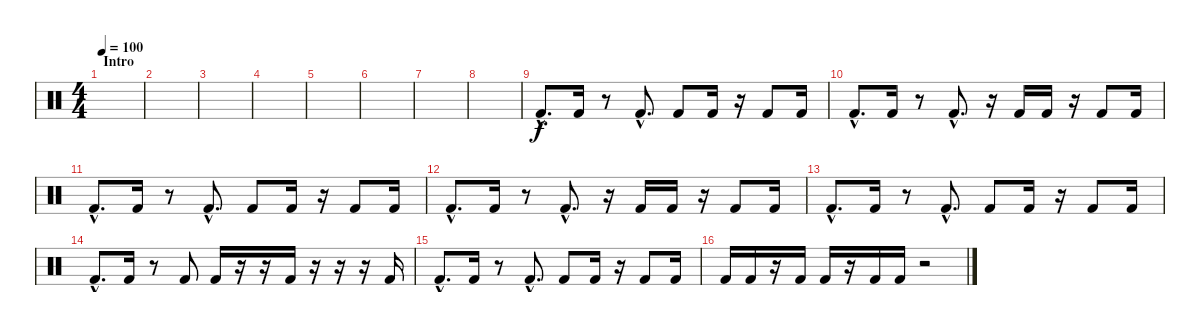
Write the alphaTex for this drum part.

\track "" {instrument percussion}
\staff {score}
\articulation defaults
\ts (4 4)
\section ("" "Intro")
\tempo 100
\clef neutral
\ks c
|
|
|
|
|
|
|
|
"Kick (hit) 2"{hac}.8{d} "Kick (hit) 2".16 r.8 "Kick (hit) 2"{hac}.8{d} "Kick (hit) 2".8 "Kick (hit) 2".16 r.16 "Kick (hit) 2".8 "Kick (hit) 2".16 |
"Kick (hit) 2"{hac}.8{d} "Kick (hit) 2".16 r.8 "Kick (hit) 2"{hac}.8{d} r.16 "Kick (hit) 2".16 "Kick (hit) 2".16 r.16 "Kick (hit) 2".8 "Kick (hit) 2".16 |
"Kick (hit) 2"{hac}.8{d} "Kick (hit) 2".16 r.8 "Kick (hit) 2"{hac}.8{d} "Kick (hit) 2".8 "Kick (hit) 2".16 r.16 "Kick (hit) 2".8 "Kick (hit) 2".16 |
"Kick (hit) 2"{hac}.8{d} "Kick (hit) 2".16 r.8 "Kick (hit) 2"{hac}.8{d} r.16 "Kick (hit) 2".16 "Kick (hit) 2".16 r.16 "Kick (hit) 2".8 "Kick (hit) 2".16 |
"Kick (hit) 2"{hac}.8{d} "Kick (hit) 2".16 r.8 "Kick (hit) 2"{hac}.8{d} "Kick (hit) 2".8 "Kick (hit) 2".16 r.16 "Kick (hit) 2".8 "Kick (hit) 2".16 |
"Kick (hit) 2"{hac}.8{d} "Kick (hit) 2".16 r.8 "Kick (hit) 2".8 "Kick (hit) 2".16 r.16 r.16 "Kick (hit) 2".16 r.16 r.16 r.16 "Kick (hit) 2".16 |
"Kick (hit) 2"{hac}.8{d} "Kick (hit) 2".16 r.8 "Kick (hit) 2"{hac}.8{d} "Kick (hit) 2".8 "Kick (hit) 2".16 r.16 "Kick (hit) 2".8 "Kick (hit) 2".16 |
"Kick (hit) 2".16 "Kick (hit) 2".16 r.16 "Kick (hit) 2".16 "Kick (hit) 2".16 r.16 "Kick (hit) 2".16 "Kick (hit) 2".16 r.2
